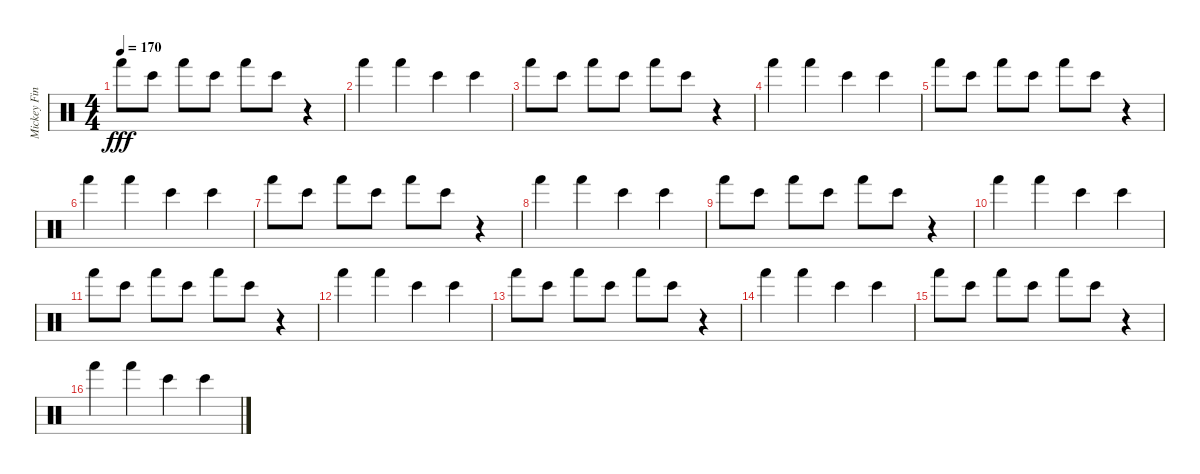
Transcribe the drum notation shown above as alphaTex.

\track ("Mickey Finn" "Mickey Fin") {instrument percussion}
\staff {score}
\articulation defaults
\ts (4 4)
\tempo 170
\clef neutral
\ks c "Hand (hit)".8{dy fff} "Bongo High (hit)".8 "Hand (hit)".8 "Bongo High (hit)".8 "Hand (hit)".8 "Bongo High (hit)".8
r.4 |
"Hand (hit)".4 "Hand (hit)".4 "Bongo High (hit)".4 "Bongo High (hit)".4 |
"Hand (hit)".8 "Bongo High (hit)".8 "Hand (hit)".8 "Bongo High (hit)".8 "Hand (hit)".8 "Bongo High (hit)".8 r.4 |
"Hand (hit)".4 "Hand (hit)".4 "Bongo High (hit)".4 "Bongo High (hit)".4 |
"Hand (hit)".8 "Bongo High (hit)".8 "Hand (hit)".8 "Bongo High (hit)".8 "Hand (hit)".8 "Bongo High (hit)".8 r.4 |
"Hand (hit)".4 "Hand (hit)".4 "Bongo High (hit)".4 "Bongo High (hit)".4 |
"Hand (hit)".8 "Bongo High (hit)".8 "Hand (hit)".8 "Bongo High (hit)".8 "Hand (hit)".8 "Bongo High (hit)".8 r.4 |
"Hand (hit)".4 "Hand (hit)".4 "Bongo High (hit)".4 "Bongo High (hit)".4 |
"Hand (hit)".8 "Bongo High (hit)".8 "Hand (hit)".8 "Bongo High (hit)".8 "Hand (hit)".8 "Bongo High (hit)".8 r.4 |
"Hand (hit)".4 "Hand (hit)".4 "Bongo High (hit)".4 "Bongo High (hit)".4 |
"Hand (hit)".8 "Bongo High (hit)".8 "Hand (hit)".8 "Bongo High (hit)".8 "Hand (hit)".8 "Bongo High (hit)".8 r.4 |
"Hand (hit)".4 "Hand (hit)".4 "Bongo High (hit)".4 "Bongo High (hit)".4 |
"Hand (hit)".8 "Bongo High (hit)".8 "Hand (hit)".8 "Bongo High (hit)".8 "Hand (hit)".8 "Bongo High (hit)".8 r.4 |
"Hand (hit)".4 "Hand (hit)".4 "Bongo High (hit)".4 "Bongo High (hit)".4 |
"Hand (hit)".8 "Bongo High (hit)".8 "Hand (hit)".8 "Bongo High (hit)".8 "Hand (hit)".8 "Bongo High (hit)".8 r.4 |
"Hand (hit)".4 "Hand (hit)".4 "Bongo High (hit)".4 "Bongo High (hit)".4
